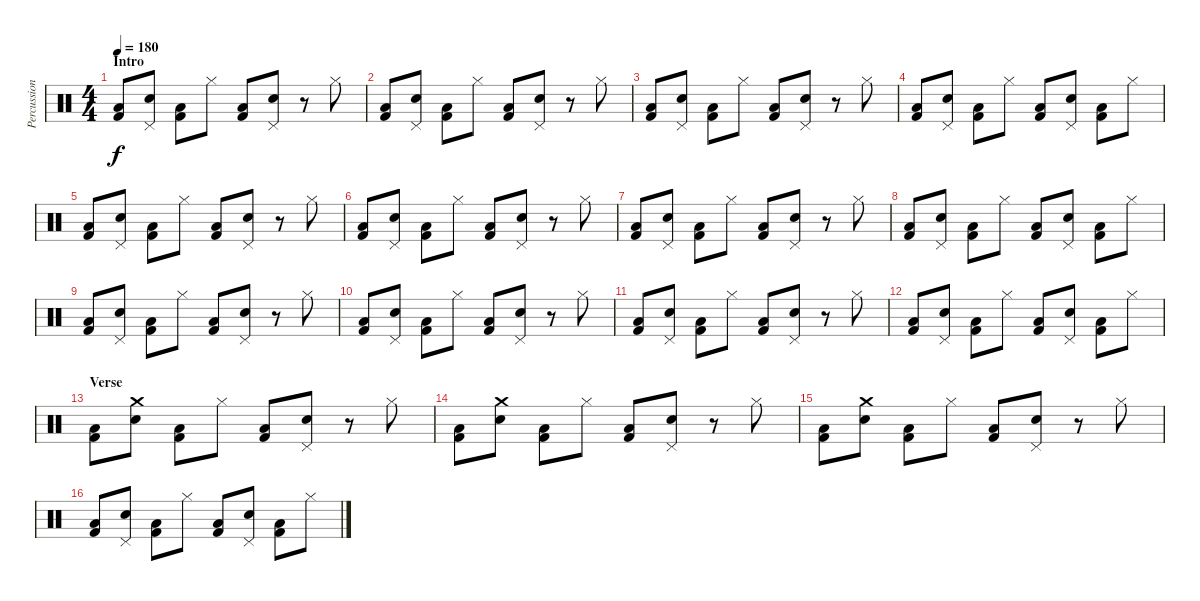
\track ("Percussion" "Percussion") {instrument percussion}
\staff {score}
\articulation defaults
\ts (4 4)
\section ("" "Intro")
\tempo 180
\clef neutral
\ks c
("Low Floor Tom (hit)" "Kick (hit) 2").8{dy f} ("Pedal Hi-Hat (hit)" "Electric Snare (hit)").8 ("Low Floor Tom (hit)" "Kick (hit) 2").8 "Hi-Hat (closed)".8 ("Low Floor Tom (hit)" "Kick (hit) 2").8 ("Pedal Hi-Hat (hit)" "Electric Snare (hit)").8 r.8 "Hi-Hat (closed)".8 |
("Low Floor Tom (hit)" "Kick (hit) 2").8 ("Pedal Hi-Hat (hit)" "Electric Snare (hit)").8 ("Low Floor Tom (hit)" "Kick (hit) 2").8 "Hi-Hat (closed)".8 ("Low Floor Tom (hit)" "Kick (hit) 2").8 ("Pedal Hi-Hat (hit)" "Electric Snare (hit)").8 r.8 "Hi-Hat (closed)".8 |
("Low Floor Tom (hit)" "Kick (hit) 2").8 ("Pedal Hi-Hat (hit)" "Electric Snare (hit)").8 ("Low Floor Tom (hit)" "Kick (hit) 2").8 "Hi-Hat (closed)".8 ("Low Floor Tom (hit)" "Kick (hit) 2").8 ("Pedal Hi-Hat (hit)" "Electric Snare (hit)").8 r.8 "Hi-Hat (closed)".8 |
("Low Floor Tom (hit)" "Kick (hit) 2").8 ("Pedal Hi-Hat (hit)" "Electric Snare (hit)").8 ("Low Floor Tom (hit)" "Kick (hit) 2").8 "Hi-Hat (closed)".8 ("Low Floor Tom (hit)" "Kick (hit) 2").8 ("Pedal Hi-Hat (hit)" "Electric Snare (hit)").8 ("Low Floor Tom (hit)" "Kick (hit) 2").8 "Hi-Hat (closed)".8 |
("Low Floor Tom (hit)" "Kick (hit) 2").8 ("Pedal Hi-Hat (hit)" "Electric Snare (hit)").8 ("Low Floor Tom (hit)" "Kick (hit) 2").8 "Hi-Hat (closed)".8 ("Low Floor Tom (hit)" "Kick (hit) 2").8 ("Pedal Hi-Hat (hit)" "Electric Snare (hit)").8 r.8 "Hi-Hat (closed)".8 |
("Low Floor Tom (hit)" "Kick (hit) 2").8 ("Pedal Hi-Hat (hit)" "Electric Snare (hit)").8 ("Low Floor Tom (hit)" "Kick (hit) 2").8 "Hi-Hat (closed)".8 ("Low Floor Tom (hit)" "Kick (hit) 2").8 ("Pedal Hi-Hat (hit)" "Electric Snare (hit)").8 r.8 "Hi-Hat (closed)".8 |
("Low Floor Tom (hit)" "Kick (hit) 2").8 ("Pedal Hi-Hat (hit)" "Electric Snare (hit)").8 ("Low Floor Tom (hit)" "Kick (hit) 2").8 "Hi-Hat (closed)".8 ("Low Floor Tom (hit)" "Kick (hit) 2").8 ("Pedal Hi-Hat (hit)" "Electric Snare (hit)").8 r.8 "Hi-Hat (closed)".8 |
("Low Floor Tom (hit)" "Kick (hit) 2").8 ("Pedal Hi-Hat (hit)" "Electric Snare (hit)").8 ("Low Floor Tom (hit)" "Kick (hit) 2").8 "Hi-Hat (closed)".8 ("Low Floor Tom (hit)" "Kick (hit) 2").8 ("Pedal Hi-Hat (hit)" "Electric Snare (hit)").8 ("Low Floor Tom (hit)" "Kick (hit) 2").8 "Hi-Hat (closed)".8 |
("Low Floor Tom (hit)" "Kick (hit) 2").8 ("Pedal Hi-Hat (hit)" "Electric Snare (hit)").8 ("Low Floor Tom (hit)" "Kick (hit) 2").8 "Hi-Hat (closed)".8 ("Low Floor Tom (hit)" "Kick (hit) 2").8 ("Pedal Hi-Hat (hit)" "Electric Snare (hit)").8 r.8 "Hi-Hat (closed)".8 |
("Low Floor Tom (hit)" "Kick (hit) 2").8 ("Pedal Hi-Hat (hit)" "Electric Snare (hit)").8 ("Low Floor Tom (hit)" "Kick (hit) 2").8 "Hi-Hat (closed)".8 ("Low Floor Tom (hit)" "Kick (hit) 2").8 ("Pedal Hi-Hat (hit)" "Electric Snare (hit)").8 r.8 "Hi-Hat (closed)".8 |
("Low Floor Tom (hit)" "Kick (hit) 2").8 ("Pedal Hi-Hat (hit)" "Electric Snare (hit)").8 ("Low Floor Tom (hit)" "Kick (hit) 2").8 "Hi-Hat (closed)".8 ("Low Floor Tom (hit)" "Kick (hit) 2").8 ("Pedal Hi-Hat (hit)" "Electric Snare (hit)").8 r.8 "Hi-Hat (closed)".8 |
("Low Floor Tom (hit)" "Kick (hit) 2").8 ("Pedal Hi-Hat (hit)" "Electric Snare (hit)").8 ("Low Floor Tom (hit)" "Kick (hit) 2").8 "Hi-Hat (closed)".8 ("Low Floor Tom (hit)" "Kick (hit) 2").8 ("Pedal Hi-Hat (hit)" "Electric Snare (hit)").8 ("Low Floor Tom (hit)" "Kick (hit) 2").8 "Hi-Hat (closed)".8 |
\section ("" "Verse")
("Low Floor Tom (hit)" "Kick (hit) 2").8 ("Crash medium (hit)" "Electric Snare (hit)").8 ("Low Floor Tom (hit)" "Kick (hit) 2").8 "Hi-Hat (closed)".8 ("Low Floor Tom (hit)" "Kick (hit) 2").8 ("Pedal Hi-Hat (hit)" "Electric Snare (hit)").8 r.8 "Hi-Hat (closed)".8 |
("Low Floor Tom (hit)" "Kick (hit) 2").8 ("Crash medium (hit)" "Electric Snare (hit)").8 ("Low Floor Tom (hit)" "Kick (hit) 2").8 "Hi-Hat (closed)".8 ("Low Floor Tom (hit)" "Kick (hit) 2").8 ("Pedal Hi-Hat (hit)" "Electric Snare (hit)").8 r.8 "Hi-Hat (closed)".8 |
("Low Floor Tom (hit)" "Kick (hit) 2").8 ("Crash medium (hit)" "Electric Snare (hit)").8 ("Low Floor Tom (hit)" "Kick (hit) 2").8 "Hi-Hat (closed)".8 ("Low Floor Tom (hit)" "Kick (hit) 2").8 ("Pedal Hi-Hat (hit)" "Electric Snare (hit)").8 r.8 "Hi-Hat (closed)".8 |
("Low Floor Tom (hit)" "Kick (hit) 2").8 ("Pedal Hi-Hat (hit)" "Electric Snare (hit)").8 ("Low Floor Tom (hit)" "Kick (hit) 2").8 "Hi-Hat (closed)".8 ("Low Floor Tom (hit)" "Kick (hit) 2").8 ("Pedal Hi-Hat (hit)" "Electric Snare (hit)").8 ("Low Floor Tom (hit)" "Kick (hit) 2").8 "Hi-Hat (closed)".8
